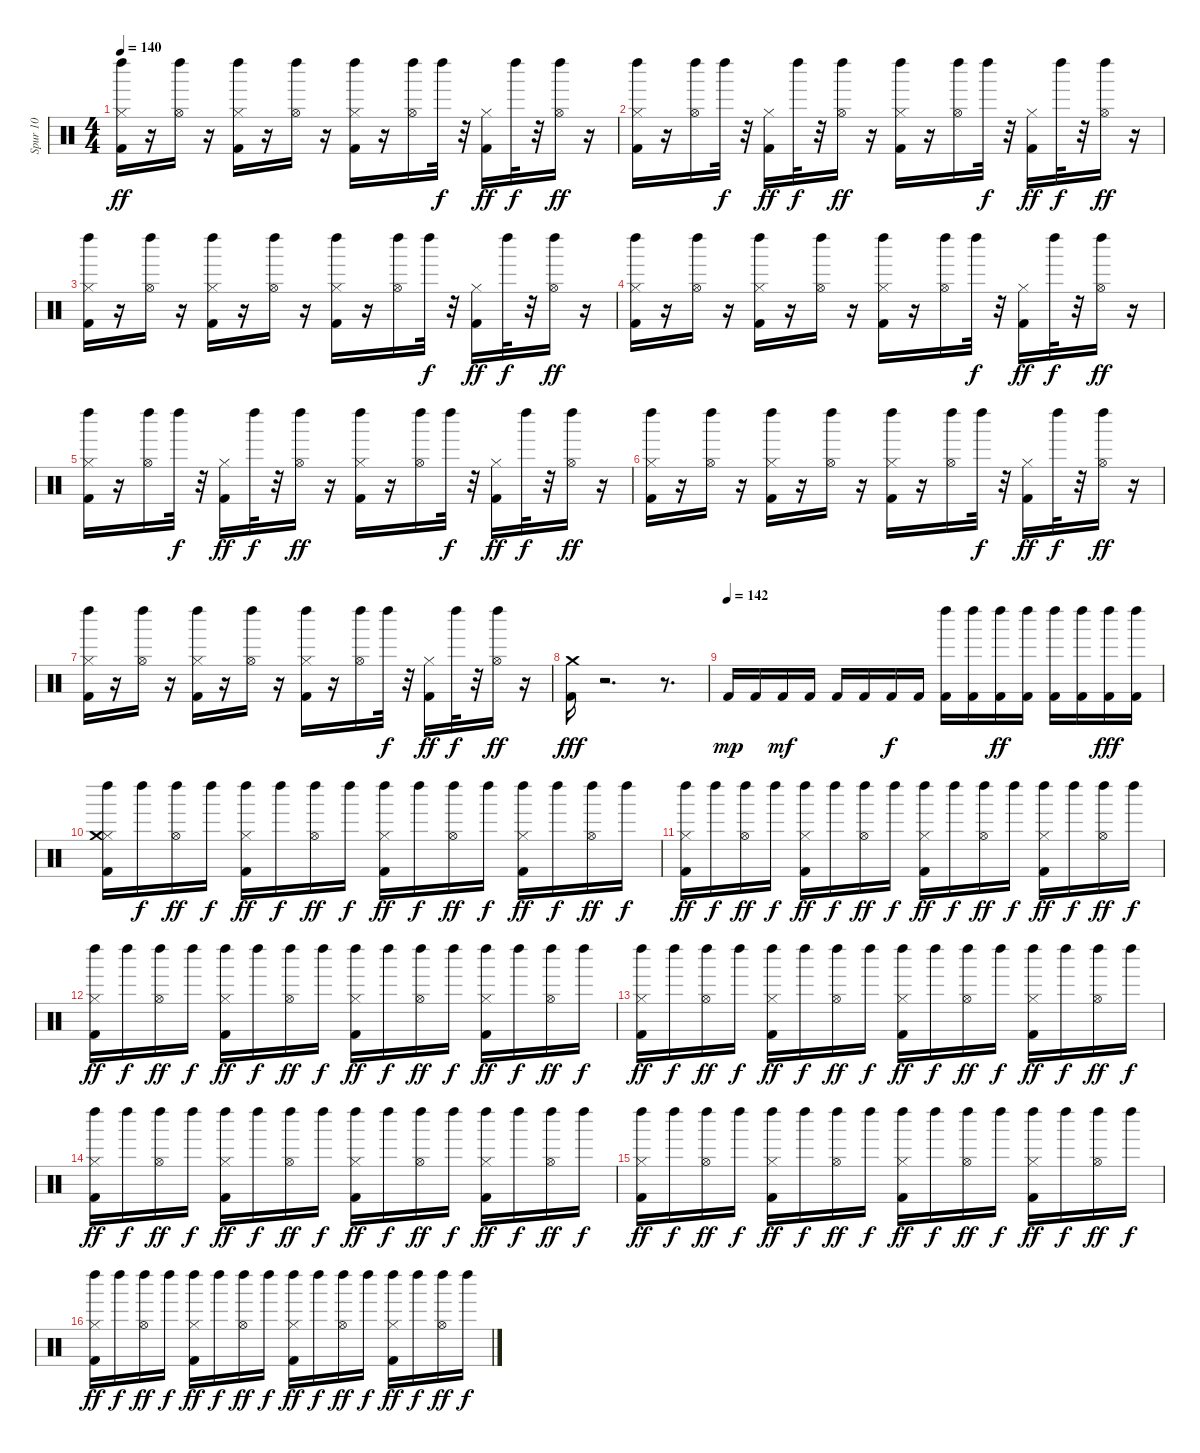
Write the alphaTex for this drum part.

\track ("Spur 10" "Spur 10") {instrument percussion}
\staff {score}
\articulation defaults
\ts (4 4)
\tempo 140
\clef neutral
\ks c
("Kick (hit) 2" "Hi-Hat (closed)" "Left Maraca (hit)").16{dy ff} r.16 ("Hi-Hat (open)" "Left Maraca (hit)").16 r.16 ("Kick (hit) 2" "Hi-Hat (closed)" "Left Maraca (hit)").16 r.16 ("Hi-Hat (open)" "Left Maraca (hit)").16 r.16 ("Kick (hit) 2" "Hi-Hat (closed)" "Left Maraca (hit)").16 r.16 ("Hi-Hat (open)" "Left Maraca (hit)").16 "Left Maraca (hit)".32{dy f} r.32 ("Kick (hit) 2" "Hi-Hat (closed)").16{dy ff} "Left Maraca (hit)".32{dy f} r.32 ("Hi-Hat (open)" "Left Maraca (hit)").16{dy ff} r.16 |
("Kick (hit) 2" "Hi-Hat (closed)" "Left Maraca (hit)").16 r.16 ("Hi-Hat (open)" "Left Maraca (hit)").16 "Left Maraca (hit)".32{dy f} r.32 ("Kick (hit) 2" "Hi-Hat (closed)").16{dy ff} "Left Maraca (hit)".32{dy f} r.32 ("Hi-Hat (open)" "Left Maraca (hit)").16{dy ff} r.16 ("Kick (hit) 2" "Hi-Hat (closed)" "Left Maraca (hit)").16 r.16 ("Hi-Hat (open)" "Left Maraca (hit)").16 "Left Maraca (hit)".32{dy f} r.32 ("Kick (hit) 2" "Hi-Hat (closed)").16{dy ff} "Left Maraca (hit)".32{dy f} r.32 ("Hi-Hat (open)" "Left Maraca (hit)").16{dy ff} r.16 |
("Kick (hit) 2" "Hi-Hat (closed)" "Left Maraca (hit)").16 r.16 ("Hi-Hat (open)" "Left Maraca (hit)").16 r.16 ("Kick (hit) 2" "Hi-Hat (closed)" "Left Maraca (hit)").16 r.16 ("Hi-Hat (open)" "Left Maraca (hit)").16 r.16 ("Kick (hit) 2" "Hi-Hat (closed)" "Left Maraca (hit)").16 r.16 ("Hi-Hat (open)" "Left Maraca (hit)").16 "Left Maraca (hit)".32{dy f} r.32 ("Kick (hit) 2" "Hi-Hat (closed)").16{dy ff} "Left Maraca (hit)".32{dy f} r.32 ("Hi-Hat (open)" "Left Maraca (hit)").16{dy ff} r.16 |
("Kick (hit) 2" "Hi-Hat (closed)" "Left Maraca (hit)").16 r.16 ("Hi-Hat (open)" "Left Maraca (hit)").16 r.16 ("Kick (hit) 2" "Hi-Hat (closed)" "Left Maraca (hit)").16 r.16 ("Hi-Hat (open)" "Left Maraca (hit)").16 r.16 ("Kick (hit) 2" "Hi-Hat (closed)" "Left Maraca (hit)").16 r.16 ("Hi-Hat (open)" "Left Maraca (hit)").16 "Left Maraca (hit)".32{dy f} r.32 ("Kick (hit) 2" "Hi-Hat (closed)").16{dy ff} "Left Maraca (hit)".32{dy f} r.32 ("Hi-Hat (open)" "Left Maraca (hit)").16{dy ff} r.16 |
("Kick (hit) 2" "Hi-Hat (closed)" "Left Maraca (hit)").16 r.16 ("Hi-Hat (open)" "Left Maraca (hit)").16 "Left Maraca (hit)".32{dy f} r.32 ("Kick (hit) 2" "Hi-Hat (closed)").16{dy ff} "Left Maraca (hit)".32{dy f} r.32 ("Hi-Hat (open)" "Left Maraca (hit)").16{dy ff} r.16 ("Kick (hit) 2" "Hi-Hat (closed)" "Left Maraca (hit)").16 r.16 ("Hi-Hat (open)" "Left Maraca (hit)").16 "Left Maraca (hit)".32{dy f} r.32 ("Kick (hit) 2" "Hi-Hat (closed)").16{dy ff} "Left Maraca (hit)".32{dy f} r.32 ("Hi-Hat (open)" "Left Maraca (hit)").16{dy ff} r.16 |
("Kick (hit) 2" "Hi-Hat (closed)" "Left Maraca (hit)").16 r.16 ("Hi-Hat (open)" "Left Maraca (hit)").16 r.16 ("Kick (hit) 2" "Hi-Hat (closed)" "Left Maraca (hit)").16 r.16 ("Hi-Hat (open)" "Left Maraca (hit)").16 r.16 ("Kick (hit) 2" "Hi-Hat (closed)" "Left Maraca (hit)").16 r.16 ("Hi-Hat (open)" "Left Maraca (hit)").16 "Left Maraca (hit)".32{dy f} r.32 ("Kick (hit) 2" "Hi-Hat (closed)").16{dy ff} "Left Maraca (hit)".32{dy f} r.32 ("Hi-Hat (open)" "Left Maraca (hit)").16{dy ff} r.16 |
("Kick (hit) 2" "Hi-Hat (closed)" "Left Maraca (hit)").16 r.16 ("Hi-Hat (open)" "Left Maraca (hit)").16 r.16 ("Kick (hit) 2" "Hi-Hat (closed)" "Left Maraca (hit)").16 r.16 ("Hi-Hat (open)" "Left Maraca (hit)").16 r.16 ("Kick (hit) 2" "Hi-Hat (closed)" "Left Maraca (hit)").16 r.16 ("Hi-Hat (open)" "Left Maraca (hit)").16 "Left Maraca (hit)".32{dy f} r.32 ("Kick (hit) 2" "Hi-Hat (closed)").16{dy ff} "Left Maraca (hit)".32{dy f} r.32 ("Hi-Hat (open)" "Left Maraca (hit)").16{dy ff} r.16 |
("Kick (hit) 2" "Crash medium (hit)").16{dy fff} r.2{d} r.8{d} |
\tempo (142)
"Kick (hit) 2".16{dy mp} "Kick (hit) 2".16 "Kick (hit) 2".16{dy mf} "Kick (hit) 2".16 "Kick (hit) 2".16 "Kick (hit) 2".16 "Kick (hit) 2".16{dy f} "Kick (hit) 2".16 ("Kick (hit) 2" "Left Maraca (hit)").16 ("Kick (hit) 2" "Left Maraca (hit)").16 ("Kick (hit) 2" "Left Maraca (hit)").16{dy ff} ("Kick (hit) 2" "Left Maraca (hit)").16 ("Kick (hit) 2" "Left Maraca (hit)").16 ("Kick (hit) 2" "Left Maraca (hit)").16 ("Kick (hit) 2" "Left Maraca (hit)").16{dy fff} ("Kick (hit) 2" "Left Maraca (hit)").16 |
("Kick (hit) 2" "Hi-Hat (closed)" "Crash medium (hit)" "Left Maraca (hit)").16 "Left Maraca (hit)".16{dy f} ("Hi-Hat (open)" "Left Maraca (hit)").16{dy ff} "Left Maraca (hit)".16{dy f} ("Kick (hit) 2" "Hi-Hat (closed)" "Left Maraca (hit)").16{dy ff} "Left Maraca (hit)".16{dy f} ("Hi-Hat (open)" "Left Maraca (hit)").16{dy ff} "Left Maraca (hit)".16{dy f} ("Kick (hit) 2" "Hi-Hat (closed)" "Left Maraca (hit)").16{dy ff} "Left Maraca (hit)".16{dy f} ("Hi-Hat (open)" "Left Maraca (hit)").16{dy ff} "Left Maraca (hit)".16{dy f} ("Kick (hit) 2" "Hi-Hat (closed)" "Left Maraca (hit)").16{dy ff} "Left Maraca (hit)".16{dy f} ("Hi-Hat (open)" "Left Maraca (hit)").16{dy ff} "Left Maraca (hit)".16{dy f} |
("Kick (hit) 2" "Hi-Hat (closed)" "Left Maraca (hit)").16{dy ff} "Left Maraca (hit)".16{dy f} ("Hi-Hat (open)" "Left Maraca (hit)").16{dy ff} "Left Maraca (hit)".16{dy f} ("Kick (hit) 2" "Hi-Hat (closed)" "Left Maraca (hit)").16{dy ff} "Left Maraca (hit)".16{dy f} ("Hi-Hat (open)" "Left Maraca (hit)").16{dy ff} "Left Maraca (hit)".16{dy f} ("Kick (hit) 2" "Hi-Hat (closed)" "Left Maraca (hit)").16{dy ff} "Left Maraca (hit)".16{dy f} ("Hi-Hat (open)" "Left Maraca (hit)").16{dy ff} "Left Maraca (hit)".16{dy f} ("Kick (hit) 2" "Hi-Hat (closed)" "Left Maraca (hit)").16{dy ff} "Left Maraca (hit)".16{dy f} ("Hi-Hat (open)" "Left Maraca (hit)").16{dy ff} "Left Maraca (hit)".16{dy f} |
("Kick (hit) 2" "Hi-Hat (closed)" "Left Maraca (hit)").16{dy ff} "Left Maraca (hit)".16{dy f} ("Hi-Hat (open)" "Left Maraca (hit)").16{dy ff} "Left Maraca (hit)".16{dy f} ("Kick (hit) 2" "Hi-Hat (closed)" "Left Maraca (hit)").16{dy ff} "Left Maraca (hit)".16{dy f} ("Hi-Hat (open)" "Left Maraca (hit)").16{dy ff} "Left Maraca (hit)".16{dy f} ("Kick (hit) 2" "Hi-Hat (closed)" "Left Maraca (hit)").16{dy ff} "Left Maraca (hit)".16{dy f} ("Hi-Hat (open)" "Left Maraca (hit)").16{dy ff} "Left Maraca (hit)".16{dy f} ("Kick (hit) 2" "Hi-Hat (closed)" "Left Maraca (hit)").16{dy ff} "Left Maraca (hit)".16{dy f} ("Hi-Hat (open)" "Left Maraca (hit)").16{dy ff} "Left Maraca (hit)".16{dy f} |
("Kick (hit) 2" "Hi-Hat (closed)" "Left Maraca (hit)").16{dy ff} "Left Maraca (hit)".16{dy f} ("Hi-Hat (open)" "Left Maraca (hit)").16{dy ff} "Left Maraca (hit)".16{dy f} ("Kick (hit) 2" "Hi-Hat (closed)" "Left Maraca (hit)").16{dy ff} "Left Maraca (hit)".16{dy f} ("Hi-Hat (open)" "Left Maraca (hit)").16{dy ff} "Left Maraca (hit)".16{dy f} ("Kick (hit) 2" "Hi-Hat (closed)" "Left Maraca (hit)").16{dy ff} "Left Maraca (hit)".16{dy f} ("Hi-Hat (open)" "Left Maraca (hit)").16{dy ff} "Left Maraca (hit)".16{dy f} ("Kick (hit) 2" "Hi-Hat (closed)" "Left Maraca (hit)").16{dy ff} "Left Maraca (hit)".16{dy f} ("Hi-Hat (open)" "Left Maraca (hit)").16{dy ff} "Left Maraca (hit)".16{dy f} |
("Kick (hit) 2" "Hi-Hat (closed)" "Left Maraca (hit)").16{dy ff} "Left Maraca (hit)".16{dy f} ("Hi-Hat (open)" "Left Maraca (hit)").16{dy ff} "Left Maraca (hit)".16{dy f} ("Kick (hit) 2" "Hi-Hat (closed)" "Left Maraca (hit)").16{dy ff} "Left Maraca (hit)".16{dy f} ("Hi-Hat (open)" "Left Maraca (hit)").16{dy ff} "Left Maraca (hit)".16{dy f} ("Kick (hit) 2" "Hi-Hat (closed)" "Left Maraca (hit)").16{dy ff} "Left Maraca (hit)".16{dy f} ("Hi-Hat (open)" "Left Maraca (hit)").16{dy ff} "Left Maraca (hit)".16{dy f} ("Kick (hit) 2" "Hi-Hat (closed)" "Left Maraca (hit)").16{dy ff} "Left Maraca (hit)".16{dy f} ("Hi-Hat (open)" "Left Maraca (hit)").16{dy ff} "Left Maraca (hit)".16{dy f} |
("Kick (hit) 2" "Hi-Hat (closed)" "Left Maraca (hit)").16{dy ff} "Left Maraca (hit)".16{dy f} ("Hi-Hat (open)" "Left Maraca (hit)").16{dy ff} "Left Maraca (hit)".16{dy f} ("Kick (hit) 2" "Hi-Hat (closed)" "Left Maraca (hit)").16{dy ff} "Left Maraca (hit)".16{dy f} ("Hi-Hat (open)" "Left Maraca (hit)").16{dy ff} "Left Maraca (hit)".16{dy f} ("Kick (hit) 2" "Hi-Hat (closed)" "Left Maraca (hit)").16{dy ff} "Left Maraca (hit)".16{dy f} ("Hi-Hat (open)" "Left Maraca (hit)").16{dy ff} "Left Maraca (hit)".16{dy f} ("Kick (hit) 2" "Hi-Hat (closed)" "Left Maraca (hit)").16{dy ff} "Left Maraca (hit)".16{dy f} ("Hi-Hat (open)" "Left Maraca (hit)").16{dy ff} "Left Maraca (hit)".16{dy f} |
("Kick (hit) 2" "Hi-Hat (closed)" "Left Maraca (hit)").16{dy ff} "Left Maraca (hit)".16{dy f} ("Hi-Hat (open)" "Left Maraca (hit)").16{dy ff} "Left Maraca (hit)".16{dy f} ("Kick (hit) 2" "Hi-Hat (closed)" "Left Maraca (hit)").16{dy ff} "Left Maraca (hit)".16{dy f} ("Hi-Hat (open)" "Left Maraca (hit)").16{dy ff} "Left Maraca (hit)".16{dy f} ("Kick (hit) 2" "Hi-Hat (closed)" "Left Maraca (hit)").16{dy ff} "Left Maraca (hit)".16{dy f} ("Hi-Hat (open)" "Left Maraca (hit)").16{dy ff} "Left Maraca (hit)".16{dy f} ("Kick (hit) 2" "Hi-Hat (closed)" "Left Maraca (hit)").16{dy ff} "Left Maraca (hit)".16{dy f} ("Hi-Hat (open)" "Left Maraca (hit)").16{dy ff} "Left Maraca (hit)".16{dy f}
